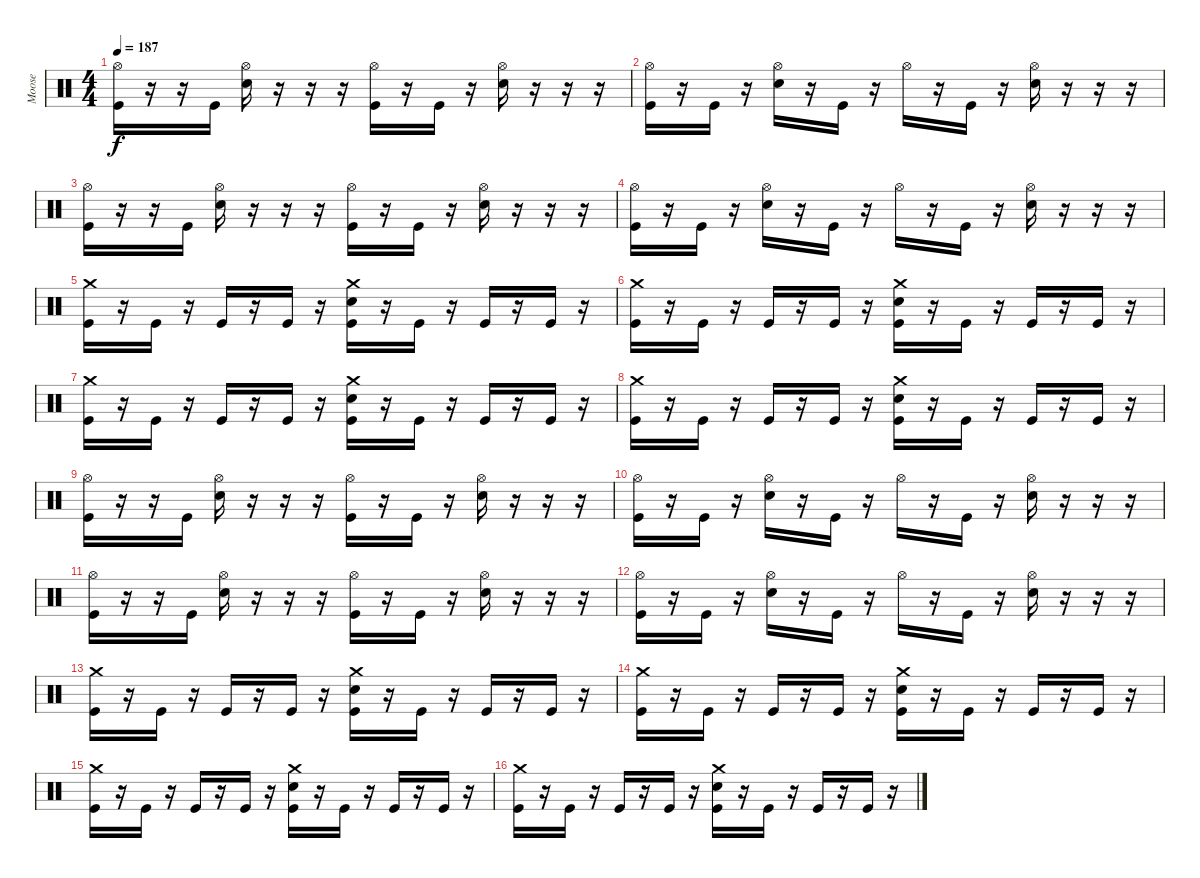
\track ("Moose" "Moose") {instrument percussion}
\staff {score}
\articulation defaults
\ts (4 4)
\tempo 187
\clef neutral
\ks c
("Hi-Hat (open)" "Kick (hit)").16{dy f} r.16 r.16 "Kick (hit)".16 ("Hi-Hat (open)" "Electric Snare (hit)").16 r.16 r.16 r.16 ("Hi-Hat (open)" "Kick (hit)").16 r.16 "Kick (hit)".16 r.16 ("Hi-Hat (open)" "Electric Snare (hit)").16 r.16 r.16 r.16 |
("Hi-Hat (open)" "Kick (hit)").16 r.16 "Kick (hit)".16 r.16 ("Hi-Hat (open)" "Electric Snare (hit)").16 r.16 "Kick (hit)".16 r.16 "Hi-Hat (open)".16 r.16 "Kick (hit)".16 r.16 ("Hi-Hat (open)" "Electric Snare (hit)").16 r.16 r.16 r.16 |
("Hi-Hat (open)" "Kick (hit)").16 r.16 r.16 "Kick (hit)".16 ("Hi-Hat (open)" "Electric Snare (hit)").16 r.16 r.16 r.16 ("Hi-Hat (open)" "Kick (hit)").16 r.16 "Kick (hit)".16 r.16 ("Hi-Hat (open)" "Electric Snare (hit)").16 r.16 r.16 r.16 |
("Hi-Hat (open)" "Kick (hit)").16 r.16 "Kick (hit)".16 r.16 ("Hi-Hat (open)" "Electric Snare (hit)").16 r.16 "Kick (hit)".16 r.16 "Hi-Hat (open)".16 r.16 "Kick (hit)".16 r.16 ("Hi-Hat (open)" "Electric Snare (hit)").16 r.16 r.16 r.16 |
("Crash medium (hit)" "Kick (hit)").16 r.16 "Kick (hit)".16 r.16 "Kick (hit)".16 r.16 "Kick (hit)".16 r.16 ("Crash medium (hit)" "Electric Snare (hit)" "Kick (hit)").16 r.16 "Kick (hit)".16 r.16 "Kick (hit)".16 r.16 "Kick (hit)".16 r.16 |
("Crash medium (hit)" "Kick (hit)").16 r.16 "Kick (hit)".16 r.16 "Kick (hit)".16 r.16 "Kick (hit)".16 r.16 ("Crash medium (hit)" "Electric Snare (hit)" "Kick (hit)").16 r.16 "Kick (hit)".16 r.16 "Kick (hit)".16 r.16 "Kick (hit)".16 r.16 |
("Crash medium (hit)" "Kick (hit)").16 r.16 "Kick (hit)".16 r.16 "Kick (hit)".16 r.16 "Kick (hit)".16 r.16 ("Crash medium (hit)" "Electric Snare (hit)" "Kick (hit)").16 r.16 "Kick (hit)".16 r.16 "Kick (hit)".16 r.16 "Kick (hit)".16 r.16 |
("Crash medium (hit)" "Kick (hit)").16 r.16 "Kick (hit)".16 r.16 "Kick (hit)".16 r.16 "Kick (hit)".16 r.16 ("Crash medium (hit)" "Electric Snare (hit)" "Kick (hit)").16 r.16 "Kick (hit)".16 r.16 "Kick (hit)".16 r.16 "Kick (hit)".16 r.16 |
("Hi-Hat (open)" "Kick (hit)").16 r.16 r.16 "Kick (hit)".16 ("Hi-Hat (open)" "Electric Snare (hit)").16 r.16 r.16 r.16 ("Hi-Hat (open)" "Kick (hit)").16 r.16 "Kick (hit)".16 r.16 ("Hi-Hat (open)" "Electric Snare (hit)").16 r.16 r.16 r.16 |
("Hi-Hat (open)" "Kick (hit)").16 r.16 "Kick (hit)".16 r.16 ("Hi-Hat (open)" "Electric Snare (hit)").16 r.16 "Kick (hit)".16 r.16 "Hi-Hat (open)".16 r.16 "Kick (hit)".16 r.16 ("Hi-Hat (open)" "Electric Snare (hit)").16 r.16 r.16 r.16 |
("Hi-Hat (open)" "Kick (hit)").16 r.16 r.16 "Kick (hit)".16 ("Hi-Hat (open)" "Electric Snare (hit)").16 r.16 r.16 r.16 ("Hi-Hat (open)" "Kick (hit)").16 r.16 "Kick (hit)".16 r.16 ("Hi-Hat (open)" "Electric Snare (hit)").16 r.16 r.16 r.16 |
("Hi-Hat (open)" "Kick (hit)").16 r.16 "Kick (hit)".16 r.16 ("Hi-Hat (open)" "Electric Snare (hit)").16 r.16 "Kick (hit)".16 r.16 "Hi-Hat (open)".16 r.16 "Kick (hit)".16 r.16 ("Hi-Hat (open)" "Electric Snare (hit)").16 r.16 r.16 r.16 |
("Crash medium (hit)" "Kick (hit)").16 r.16 "Kick (hit)".16 r.16 "Kick (hit)".16 r.16 "Kick (hit)".16 r.16 ("Crash medium (hit)" "Electric Snare (hit)" "Kick (hit)").16 r.16 "Kick (hit)".16 r.16 "Kick (hit)".16 r.16 "Kick (hit)".16 r.16 |
("Crash medium (hit)" "Kick (hit)").16 r.16 "Kick (hit)".16 r.16 "Kick (hit)".16 r.16 "Kick (hit)".16 r.16 ("Crash medium (hit)" "Electric Snare (hit)" "Kick (hit)").16 r.16 "Kick (hit)".16 r.16 "Kick (hit)".16 r.16 "Kick (hit)".16 r.16 |
("Crash medium (hit)" "Kick (hit)").16 r.16 "Kick (hit)".16 r.16 "Kick (hit)".16 r.16 "Kick (hit)".16 r.16 ("Crash medium (hit)" "Electric Snare (hit)" "Kick (hit)").16 r.16 "Kick (hit)".16 r.16 "Kick (hit)".16 r.16 "Kick (hit)".16 r.16 |
("Crash medium (hit)" "Kick (hit)").16 r.16 "Kick (hit)".16 r.16 "Kick (hit)".16 r.16 "Kick (hit)".16 r.16 ("Crash medium (hit)" "Electric Snare (hit)" "Kick (hit)").16 r.16 "Kick (hit)".16 r.16 "Kick (hit)".16 r.16 "Kick (hit)".16 r.16
